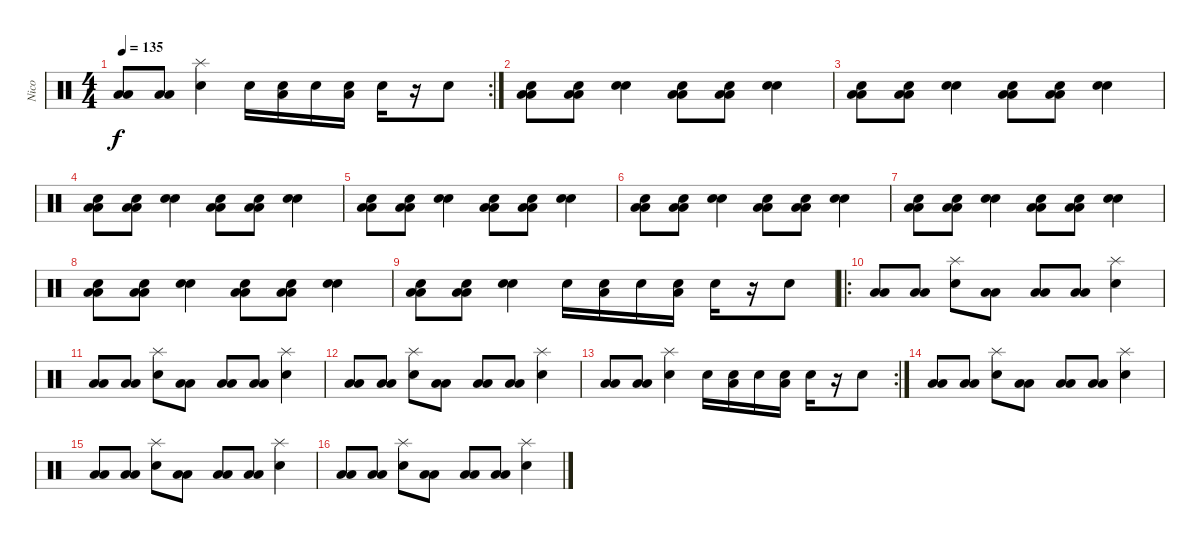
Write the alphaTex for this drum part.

\track ("Nico" "Nico") {instrument percussion}
\staff {score}
\articulation defaults
\rc 2
\ts (4 4)
\tempo 135
\clef neutral
\ks c
("Low Floor Tom (hit)" "Low Floor Tom (hit)").8{dy f} ("Low Floor Tom (hit)" "Low Floor Tom (hit)").8 ("Snare (hit) 2" "Splash (hit)").4 "Snare (hit) 2".16 ("Snare (hit) 2" "Low Floor Tom (hit)").16 "Snare (hit) 2".16 ("Snare (hit) 2" "Low Floor Tom (hit)").16 "Snare (hit) 2".16 r.16 "Snare (hit) 2".8 |
("Electric Snare (hit)" "Low Floor Tom (hit)" "Low Floor Tom (hit)").8 ("Electric Snare (hit)" "Low Floor Tom (hit)" "Low Floor Tom (hit)").8 ("Snare (hit) 2" "Electric Snare (hit)").4 ("Electric Snare (hit)" "Low Floor Tom (hit)" "Low Floor Tom (hit)").8 ("Electric Snare (hit)" "Low Floor Tom (hit)" "Low Floor Tom (hit)").8 ("Snare (hit) 2" "Electric Snare (hit)").4 |
("Electric Snare (hit)" "Low Floor Tom (hit)" "Low Floor Tom (hit)").8 ("Electric Snare (hit)" "Low Floor Tom (hit)" "Low Floor Tom (hit)").8 ("Snare (hit) 2" "Electric Snare (hit)").4 ("Electric Snare (hit)" "Low Floor Tom (hit)" "Low Floor Tom (hit)").8 ("Electric Snare (hit)" "Low Floor Tom (hit)" "Low Floor Tom (hit)").8 ("Snare (hit) 2" "Electric Snare (hit)").4 |
("Electric Snare (hit)" "Low Floor Tom (hit)" "Low Floor Tom (hit)").8 ("Electric Snare (hit)" "Low Floor Tom (hit)" "Low Floor Tom (hit)").8 ("Snare (hit) 2" "Electric Snare (hit)").4 ("Electric Snare (hit)" "Low Floor Tom (hit)" "Low Floor Tom (hit)").8 ("Electric Snare (hit)" "Low Floor Tom (hit)" "Low Floor Tom (hit)").8 ("Snare (hit) 2" "Electric Snare (hit)").4 |
("Electric Snare (hit)" "Low Floor Tom (hit)" "Low Floor Tom (hit)").8 ("Electric Snare (hit)" "Low Floor Tom (hit)" "Low Floor Tom (hit)").8 ("Snare (hit) 2" "Electric Snare (hit)").4 ("Electric Snare (hit)" "Low Floor Tom (hit)" "Low Floor Tom (hit)").8 ("Electric Snare (hit)" "Low Floor Tom (hit)" "Low Floor Tom (hit)").8 ("Snare (hit) 2" "Electric Snare (hit)").4 |
("Electric Snare (hit)" "Low Floor Tom (hit)" "Low Floor Tom (hit)").8 ("Electric Snare (hit)" "Low Floor Tom (hit)" "Low Floor Tom (hit)").8 ("Snare (hit) 2" "Electric Snare (hit)").4 ("Electric Snare (hit)" "Low Floor Tom (hit)" "Low Floor Tom (hit)").8 ("Electric Snare (hit)" "Low Floor Tom (hit)" "Low Floor Tom (hit)").8 ("Snare (hit) 2" "Electric Snare (hit)").4 |
("Electric Snare (hit)" "Low Floor Tom (hit)" "Low Floor Tom (hit)").8 ("Electric Snare (hit)" "Low Floor Tom (hit)" "Low Floor Tom (hit)").8 ("Snare (hit) 2" "Electric Snare (hit)").4 ("Electric Snare (hit)" "Low Floor Tom (hit)" "Low Floor Tom (hit)").8 ("Electric Snare (hit)" "Low Floor Tom (hit)" "Low Floor Tom (hit)").8 ("Snare (hit) 2" "Electric Snare (hit)").4 |
("Electric Snare (hit)" "Low Floor Tom (hit)" "Low Floor Tom (hit)").8 ("Electric Snare (hit)" "Low Floor Tom (hit)" "Low Floor Tom (hit)").8 ("Snare (hit) 2" "Electric Snare (hit)").4 ("Electric Snare (hit)" "Low Floor Tom (hit)" "Low Floor Tom (hit)").8 ("Electric Snare (hit)" "Low Floor Tom (hit)" "Low Floor Tom (hit)").8 ("Snare (hit) 2" "Electric Snare (hit)").4 |
("Electric Snare (hit)" "Low Floor Tom (hit)" "Low Floor Tom (hit)").8 ("Electric Snare (hit)" "Low Floor Tom (hit)" "Low Floor Tom (hit)").8 ("Snare (hit) 2" "Electric Snare (hit)").4 "Snare (hit) 2".16 ("Snare (hit) 2" "Low Floor Tom (hit)").16 "Snare (hit) 2".16 ("Snare (hit) 2" "Low Floor Tom (hit)").16 "Snare (hit) 2".16 r.16 "Snare (hit) 2".8 |
\ro
("Low Floor Tom (hit)" "Low Floor Tom (hit)").8 ("Low Floor Tom (hit)" "Low Floor Tom (hit)").8 ("Snare (hit) 2" "Splash (hit)").8 ("Low Floor Tom (hit)" "Low Floor Tom (hit)").8 ("Low Floor Tom (hit)" "Low Floor Tom (hit)").8 ("Low Floor Tom (hit)" "Low Floor Tom (hit)").8 ("Snare (hit) 2" "Splash (hit)").4 |
("Low Floor Tom (hit)" "Low Floor Tom (hit)").8 ("Low Floor Tom (hit)" "Low Floor Tom (hit)").8 ("Snare (hit) 2" "Splash (hit)").8 ("Low Floor Tom (hit)" "Low Floor Tom (hit)").8 ("Low Floor Tom (hit)" "Low Floor Tom (hit)").8 ("Low Floor Tom (hit)" "Low Floor Tom (hit)").8 ("Snare (hit) 2" "Splash (hit)").4 |
("Low Floor Tom (hit)" "Low Floor Tom (hit)").8 ("Low Floor Tom (hit)" "Low Floor Tom (hit)").8 ("Snare (hit) 2" "Splash (hit)").8 ("Low Floor Tom (hit)" "Low Floor Tom (hit)").8 ("Low Floor Tom (hit)" "Low Floor Tom (hit)").8 ("Low Floor Tom (hit)" "Low Floor Tom (hit)").8 ("Snare (hit) 2" "Splash (hit)").4 |
\rc 2
("Low Floor Tom (hit)" "Low Floor Tom (hit)").8 ("Low Floor Tom (hit)" "Low Floor Tom (hit)").8 ("Snare (hit) 2" "Splash (hit)").4 "Snare (hit) 2".16 ("Snare (hit) 2" "Low Floor Tom (hit)").16 "Snare (hit) 2".16 ("Snare (hit) 2" "Low Floor Tom (hit)").16 "Snare (hit) 2".16 r.16 "Snare (hit) 2".8 |
("Low Floor Tom (hit)" "Low Floor Tom (hit)").8 ("Low Floor Tom (hit)" "Low Floor Tom (hit)").8 ("Snare (hit) 2" "Splash (hit)").8 ("Low Floor Tom (hit)" "Low Floor Tom (hit)").8 ("Low Floor Tom (hit)" "Low Floor Tom (hit)").8 ("Low Floor Tom (hit)" "Low Floor Tom (hit)").8 ("Snare (hit) 2" "Splash (hit)").4 |
("Low Floor Tom (hit)" "Low Floor Tom (hit)").8 ("Low Floor Tom (hit)" "Low Floor Tom (hit)").8 ("Snare (hit) 2" "Splash (hit)").8 ("Low Floor Tom (hit)" "Low Floor Tom (hit)").8 ("Low Floor Tom (hit)" "Low Floor Tom (hit)").8 ("Low Floor Tom (hit)" "Low Floor Tom (hit)").8 ("Snare (hit) 2" "Splash (hit)").4 |
("Low Floor Tom (hit)" "Low Floor Tom (hit)").8 ("Low Floor Tom (hit)" "Low Floor Tom (hit)").8 ("Snare (hit) 2" "Splash (hit)").8 ("Low Floor Tom (hit)" "Low Floor Tom (hit)").8 ("Low Floor Tom (hit)" "Low Floor Tom (hit)").8 ("Low Floor Tom (hit)" "Low Floor Tom (hit)").8 ("Snare (hit) 2" "Splash (hit)").4
